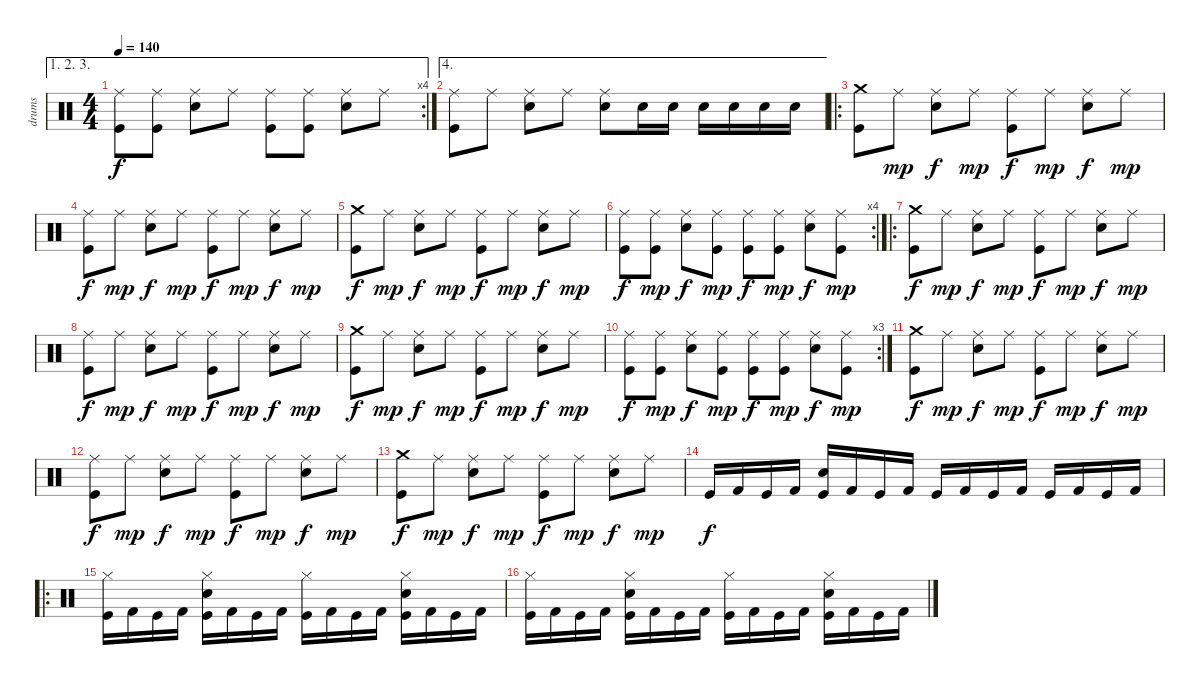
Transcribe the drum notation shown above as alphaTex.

\track ("drums" "drums") {instrument percussion}
\staff {score}
\articulation defaults
\ae (1 2 3)
\rc 4
\ts (4 4)
\tempo 140
\clef neutral
\ks c
("Ride (middle)" "Kick (hit)").8{dy f} ("Ride (middle)" "Kick (hit)").8 ("Ride (middle)" "Snare (hit) 2").8 "Ride (middle)".8 ("Ride (middle)" "Kick (hit)").8 ("Ride (middle)" "Kick (hit)").8 ("Ride (middle)" "Snare (hit) 2").8 "Ride (middle)".8 |
\ae 4
("Ride (middle)" "Kick (hit)").8 "Ride (middle)".8 ("Ride (middle)" "Snare (hit) 2").8 "Ride (middle)".8 ("Ride (middle)" "Snare (hit) 2").8 "Snare (hit) 2".16 "Snare (hit) 2".16 "Snare (hit) 2".16 "Snare (hit) 2".16 "Snare (hit) 2".16 "Snare (hit) 2".16 |
\ro
("Crash medium (hit)" "Kick (hit)").8 "Ride (middle)".8{dy mp} ("Ride (middle)" "Snare (hit) 2").8{dy f} "Ride (middle)".8{dy mp} ("Ride (middle)" "Kick (hit)").8{dy f} "Ride (middle)".8{dy mp} ("Ride (middle)" "Snare (hit) 2").8{dy f} "Ride (middle)".8{dy mp} |
("Ride (middle)" "Kick (hit)").8{dy f} "Ride (middle)".8{dy mp} ("Ride (middle)" "Snare (hit) 2").8{dy f} "Ride (middle)".8{dy mp} ("Ride (middle)" "Kick (hit)").8{dy f} "Ride (middle)".8{dy mp} ("Ride (middle)" "Snare (hit) 2").8{dy f} "Ride (middle)".8{dy mp} |
("Crash medium (hit)" "Kick (hit)").8{dy f} "Ride (middle)".8{dy mp} ("Ride (middle)" "Snare (hit) 2").8{dy f} "Ride (middle)".8{dy mp} ("Ride (middle)" "Kick (hit)").8{dy f} "Ride (middle)".8{dy mp} ("Ride (middle)" "Snare (hit) 2").8{dy f} "Ride (middle)".8{dy mp} |
\rc 4
("Ride (middle)" "Kick (hit)").8{dy f} ("Ride (middle)" "Kick (hit)").8{dy mp} ("Ride (middle)" "Snare (hit) 2").8{dy f} ("Ride (middle)" "Kick (hit)").8{dy mp} ("Ride (middle)" "Kick (hit)").8{dy f} ("Ride (middle)" "Kick (hit)").8{dy mp} ("Ride (middle)" "Snare (hit) 2").8{dy f} ("Ride (middle)" "Kick (hit)").8{dy mp} |
\ro
("Crash medium (hit)" "Kick (hit)").8{dy f} "Ride (middle)".8{dy mp} ("Ride (middle)" "Snare (hit) 2").8{dy f} "Ride (middle)".8{dy mp} ("Ride (middle)" "Kick (hit)").8{dy f} "Ride (middle)".8{dy mp} ("Ride (middle)" "Snare (hit) 2").8{dy f} "Ride (middle)".8{dy mp} |
("Ride (middle)" "Kick (hit)").8{dy f} "Ride (middle)".8{dy mp} ("Ride (middle)" "Snare (hit) 2").8{dy f} "Ride (middle)".8{dy mp} ("Ride (middle)" "Kick (hit)").8{dy f} "Ride (middle)".8{dy mp} ("Ride (middle)" "Snare (hit) 2").8{dy f} "Ride (middle)".8{dy mp} |
("Crash medium (hit)" "Kick (hit)").8{dy f} "Ride (middle)".8{dy mp} ("Ride (middle)" "Snare (hit) 2").8{dy f} "Ride (middle)".8{dy mp} ("Ride (middle)" "Kick (hit)").8{dy f} "Ride (middle)".8{dy mp} ("Ride (middle)" "Snare (hit) 2").8{dy f} "Ride (middle)".8{dy mp} |
\rc 3
("Ride (middle)" "Kick (hit)").8{dy f} ("Ride (middle)" "Kick (hit)").8{dy mp} ("Ride (middle)" "Snare (hit) 2").8{dy f} ("Ride (middle)" "Kick (hit)").8{dy mp} ("Ride (middle)" "Kick (hit)").8{dy f} ("Ride (middle)" "Kick (hit)").8{dy mp} ("Ride (middle)" "Snare (hit) 2").8{dy f} ("Ride (middle)" "Kick (hit)").8{dy mp} |
("Crash medium (hit)" "Kick (hit)").8{dy f} "Ride (middle)".8{dy mp} ("Ride (middle)" "Snare (hit) 2").8{dy f} "Ride (middle)".8{dy mp} ("Ride (middle)" "Kick (hit)").8{dy f} "Ride (middle)".8{dy mp} ("Ride (middle)" "Snare (hit) 2").8{dy f} "Ride (middle)".8{dy mp} |
("Ride (middle)" "Kick (hit)").8{dy f} "Ride (middle)".8{dy mp} ("Ride (middle)" "Snare (hit) 2").8{dy f} "Ride (middle)".8{dy mp} ("Ride (middle)" "Kick (hit)").8{dy f} "Ride (middle)".8{dy mp} ("Ride (middle)" "Snare (hit) 2").8{dy f} "Ride (middle)".8{dy mp} |
("Crash medium (hit)" "Kick (hit)").8{dy f} "Ride (middle)".8{dy mp} ("Ride (middle)" "Snare (hit) 2").8{dy f} "Ride (middle)".8{dy mp} ("Ride (middle)" "Kick (hit)").8{dy f} "Ride (middle)".8{dy mp} ("Ride (middle)" "Snare (hit) 2").8{dy f} "Ride (middle)".8{dy mp} |
"Kick (hit)".16{dy f} "Kick (hit) 2".16 "Kick (hit)".16 "Kick (hit) 2".16 ("Kick (hit)" "Snare (hit) 2").16 "Kick (hit) 2".16 "Kick (hit)".16 "Kick (hit) 2".16 "Kick (hit)".16 "Kick (hit) 2".16 "Kick (hit)".16 "Kick (hit) 2".16 "Kick (hit)".16 "Kick (hit) 2".16 "Kick (hit)".16 "Kick (hit) 2".16 |
\ro
("Kick (hit)" "Hi-Hat (closed)").16 "Kick (hit) 2".16 "Kick (hit)".16 "Kick (hit) 2".16 ("Kick (hit)" "Snare (hit) 2" "Hi-Hat (closed)").16 "Kick (hit) 2".16 "Kick (hit)".16 "Kick (hit) 2".16 ("Kick (hit)" "Hi-Hat (closed)").16 "Kick (hit) 2".16 "Kick (hit)".16 "Kick (hit) 2".16 ("Kick (hit)" "Snare (hit) 2" "Hi-Hat (closed)").16 "Kick (hit) 2".16 "Kick (hit)".16 "Kick (hit) 2".16 |
("Kick (hit)" "Hi-Hat (closed)").16 "Kick (hit) 2".16 "Kick (hit)".16 "Kick (hit) 2".16 ("Kick (hit)" "Snare (hit) 2" "Hi-Hat (closed)").16 "Kick (hit) 2".16 "Kick (hit)".16 "Kick (hit) 2".16 ("Kick (hit)" "Hi-Hat (closed)").16 "Kick (hit) 2".16 "Kick (hit)".16 "Kick (hit) 2".16 ("Kick (hit)" "Snare (hit) 2" "Hi-Hat (closed)").16 "Kick (hit) 2".16 "Kick (hit)".16 "Kick (hit) 2".16
